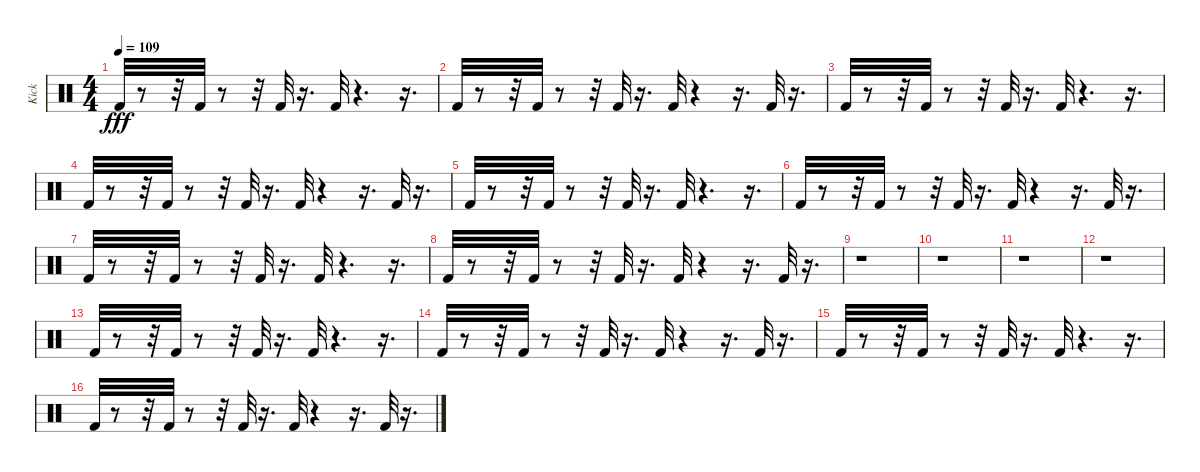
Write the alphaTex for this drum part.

\track ("Kick" "Kick") {instrument percussion}
\staff {score}
\articulation defaults
\ts (4 4)
\tempo 109
\clef neutral
\ks c "Kick (hit) 2".32{dy fff}
r.8 r.32 "Kick (hit) 2".32 r.8 r.32 "Kick (hit) 2".32 r.16{d} "Kick (hit) 2".32 r.4{d} r.16{d} |
"Kick (hit) 2".32 r.8 r.32 "Kick (hit) 2".32 r.8 r.32 "Kick (hit) 2".32 r.16{d} "Kick (hit) 2".32 r.4 r.16{d} "Kick (hit) 2".32 r.16{d} |
"Kick (hit) 2".32 r.8 r.32 "Kick (hit) 2".32 r.8 r.32 "Kick (hit) 2".32 r.16{d} "Kick (hit) 2".32 r.4{d} r.16{d} |
"Kick (hit) 2".32 r.8 r.32 "Kick (hit) 2".32 r.8 r.32 "Kick (hit) 2".32 r.16{d} "Kick (hit) 2".32 r.4 r.16{d} "Kick (hit) 2".32 r.16{d} |
"Kick (hit) 2".32 r.8 r.32 "Kick (hit) 2".32 r.8 r.32 "Kick (hit) 2".32 r.16{d} "Kick (hit) 2".32 r.4{d} r.16{d} |
"Kick (hit) 2".32 r.8 r.32 "Kick (hit) 2".32 r.8 r.32 "Kick (hit) 2".32 r.16{d} "Kick (hit) 2".32 r.4 r.16{d} "Kick (hit) 2".32 r.16{d} |
"Kick (hit) 2".32 r.8 r.32 "Kick (hit) 2".32 r.8 r.32 "Kick (hit) 2".32 r.16{d} "Kick (hit) 2".32 r.4{d} r.16{d} |
"Kick (hit) 2".32 r.8 r.32 "Kick (hit) 2".32 r.8 r.32 "Kick (hit) 2".32 r.16{d} "Kick (hit) 2".32 r.4 r.16{d} "Kick (hit) 2".32 r.16{d} |
r.1 |
r.1 |
r.1 |
r.1 |
"Kick (hit) 2".32 r.8 r.32 "Kick (hit) 2".32 r.8 r.32 "Kick (hit) 2".32 r.16{d} "Kick (hit) 2".32 r.4{d} r.16{d} |
"Kick (hit) 2".32 r.8 r.32 "Kick (hit) 2".32 r.8 r.32 "Kick (hit) 2".32 r.16{d} "Kick (hit) 2".32 r.4 r.16{d} "Kick (hit) 2".32 r.16{d} |
"Kick (hit) 2".32 r.8 r.32 "Kick (hit) 2".32 r.8 r.32 "Kick (hit) 2".32 r.16{d} "Kick (hit) 2".32 r.4{d} r.16{d} |
"Kick (hit) 2".32 r.8 r.32 "Kick (hit) 2".32 r.8 r.32 "Kick (hit) 2".32 r.16{d} "Kick (hit) 2".32 r.4 r.16{d} "Kick (hit) 2".32 r.16{d}
